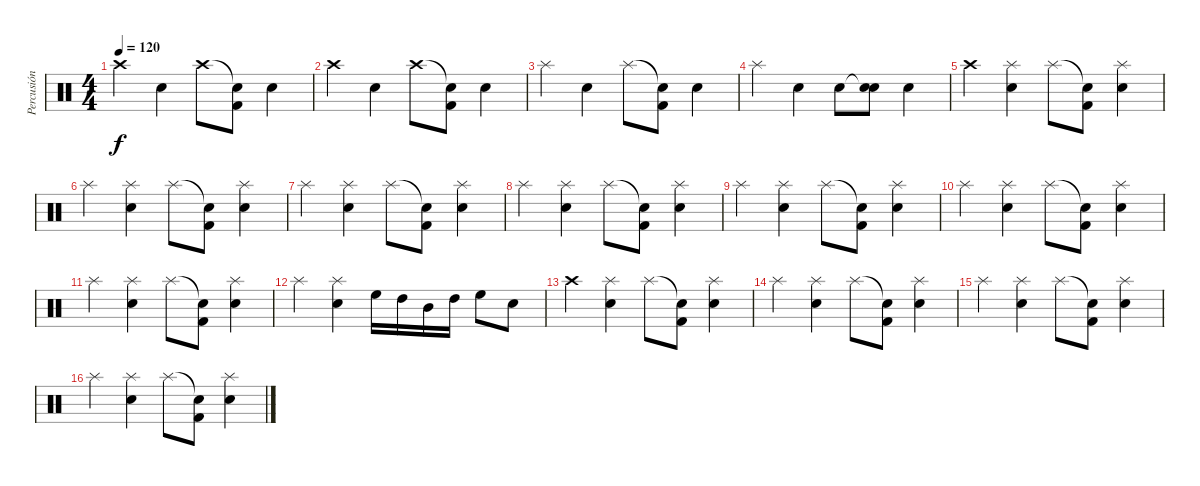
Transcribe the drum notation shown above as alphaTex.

\track ("Percusión" "Percusión") {instrument percussion}
\staff {score}
\articulation defaults
\ts (4 4)
\tempo 120
\clef neutral
\ks c "Crash high (hit)".4{dy f} "Snare (hit) 2".4 "Crash high (hit)".8
("Snare (hit)"{t} "Kick (hit) 2").8 "Snare (hit) 2".4 |
"Crash high (hit)".4 "Snare (hit) 2".4 "Crash high (hit)".8 ("Snare (hit)"{t} "Kick (hit) 2").8 "Snare (hit) 2".4 |
"Splash (hit)".4 "Snare (hit) 2".4 "Splash (hit)".8 ("Snare (hit)"{t} "Kick (hit) 2").8 "Snare (hit) 2".4 |
"Splash (hit)".4 "Snare (hit) 2".4 "Snare (hit) 2".8 ("Snare (hit)"{t} "Snare (hit) 2").8 "Snare (hit) 2".4 |
"Crash high (hit)".4 ("Splash (hit)" "Snare (hit) 2").4 "Splash (hit)".8 ("Snare (hit)"{t} "Kick (hit) 2").8 ("Splash (hit)" "Snare (hit) 2").4 |
"Splash (hit)".4 ("Splash (hit)" "Snare (hit) 2").4 "Splash (hit)".8 ("Snare (hit)"{t} "Kick (hit) 2").8 ("Splash (hit)" "Snare (hit) 2").4 |
"Splash (hit)".4 ("Splash (hit)" "Snare (hit) 2").4 "Splash (hit)".8 ("Snare (hit)"{t} "Kick (hit) 2").8 ("Splash (hit)" "Snare (hit) 2").4 |
"Splash (hit)".4 ("Splash (hit)" "Snare (hit) 2").4 "Splash (hit)".8 ("Snare (hit)"{t} "Kick (hit) 2").8 ("Splash (hit)" "Snare (hit) 2").4 |
"Splash (hit)".4 ("Splash (hit)" "Snare (hit) 2").4 "Splash (hit)".8 ("Snare (hit)"{t} "Kick (hit) 2").8 ("Splash (hit)" "Snare (hit) 2").4 |
"Splash (hit)".4 ("Splash (hit)" "Snare (hit) 2").4 "Splash (hit)".8 ("Snare (hit)"{t} "Kick (hit) 2").8 ("Splash (hit)" "Snare (hit) 2").4 |
"Splash (hit)".4 ("Splash (hit)" "Snare (hit) 2").4 "Splash (hit)".8 ("Snare (hit)"{t} "Kick (hit) 2").8 ("Splash (hit)" "Snare (hit) 2").4 |
"Splash (hit)".4 ("Splash (hit)" "Snare (hit) 2").4 "High Floor Tom (hit)".16 "High Tom (hit)".16 "Mid Tom (hit)".16 "High Tom (hit)".16 "High Floor Tom (hit)".8 "Snare (hit) 2".8 |
"Crash high (hit)".4 ("Splash (hit)" "Snare (hit) 2").4 "Splash (hit)".8 ("Snare (hit)"{t} "Kick (hit) 2").8 ("Splash (hit)" "Snare (hit) 2").4 |
"Splash (hit)".4 ("Splash (hit)" "Snare (hit) 2").4 "Splash (hit)".8 ("Snare (hit)"{t} "Kick (hit) 2").8 ("Splash (hit)" "Snare (hit) 2").4 |
"Splash (hit)".4 ("Splash (hit)" "Snare (hit) 2").4 "Splash (hit)".8 ("Snare (hit)"{t} "Kick (hit) 2").8 ("Splash (hit)" "Snare (hit) 2").4 |
"Splash (hit)".4 ("Splash (hit)" "Snare (hit) 2").4 "Splash (hit)".8 ("Snare (hit)"{t} "Kick (hit) 2").8 ("Splash (hit)" "Snare (hit) 2").4
